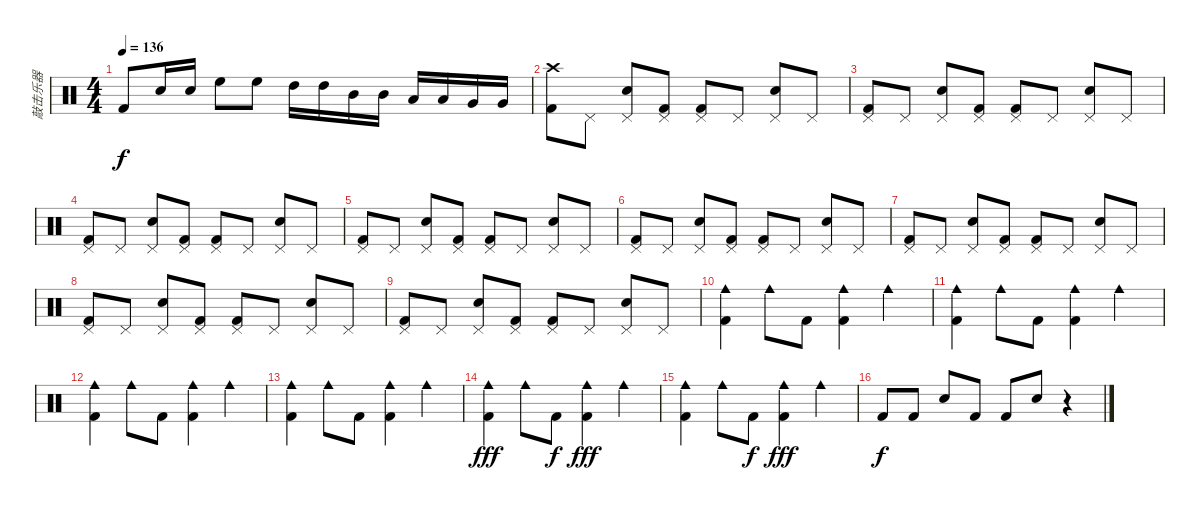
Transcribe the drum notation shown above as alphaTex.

\track ("敲击乐器" "敲击乐器") {instrument percussion}
\staff {score}
\articulation defaults
\ts (4 4)
\tempo 136
\clef neutral
\ks c "Kick (hit) 2".8{dy f} "Snare (hit) 2".16 "Snare (hit) 2".16 "High Floor Tom (hit)".8 "High Floor Tom (hit)".8 "High Tom (hit)".16 "High Tom (hit)".16 "Mid Tom (hit)".16 "Mid Tom (hit)".16 "Low Tom (hit)".16 "Low Tom (hit)".16 "Very Low Tom (hit)".16 "Very Low Tom (hit)".16
|
("Crash high (hit)" "Kick (hit) 2").8 "Pedal Hi-Hat (hit)".8 ("Pedal Hi-Hat (hit)" "Snare (hit) 2").8 ("Pedal Hi-Hat (hit)" "Kick (hit) 2").8 ("Pedal Hi-Hat (hit)" "Kick (hit) 2").8 "Pedal Hi-Hat (hit)".8 ("Pedal Hi-Hat (hit)" "Snare (hit) 2").8 "Pedal Hi-Hat (hit)".8 |
("Pedal Hi-Hat (hit)" "Kick (hit) 2").8 "Pedal Hi-Hat (hit)".8 ("Pedal Hi-Hat (hit)" "Snare (hit) 2").8 ("Pedal Hi-Hat (hit)" "Kick (hit) 2").8 ("Pedal Hi-Hat (hit)" "Kick (hit) 2").8 "Pedal Hi-Hat (hit)".8 ("Pedal Hi-Hat (hit)" "Snare (hit) 2").8 "Pedal Hi-Hat (hit)".8 |
("Pedal Hi-Hat (hit)" "Kick (hit) 2").8 "Pedal Hi-Hat (hit)".8 ("Pedal Hi-Hat (hit)" "Snare (hit) 2").8 ("Pedal Hi-Hat (hit)" "Kick (hit) 2").8 ("Pedal Hi-Hat (hit)" "Kick (hit) 2").8 "Pedal Hi-Hat (hit)".8 ("Pedal Hi-Hat (hit)" "Snare (hit) 2").8 "Pedal Hi-Hat (hit)".8 |
("Pedal Hi-Hat (hit)" "Kick (hit) 2").8 "Pedal Hi-Hat (hit)".8 ("Pedal Hi-Hat (hit)" "Snare (hit) 2").8 ("Pedal Hi-Hat (hit)" "Kick (hit) 2").8 ("Pedal Hi-Hat (hit)" "Kick (hit) 2").8 "Pedal Hi-Hat (hit)".8 ("Pedal Hi-Hat (hit)" "Snare (hit) 2").8 "Pedal Hi-Hat (hit)".8 |
("Pedal Hi-Hat (hit)" "Kick (hit) 2").8 "Pedal Hi-Hat (hit)".8 ("Pedal Hi-Hat (hit)" "Snare (hit) 2").8 ("Pedal Hi-Hat (hit)" "Kick (hit) 2").8 ("Pedal Hi-Hat (hit)" "Kick (hit) 2").8 "Pedal Hi-Hat (hit)".8 ("Pedal Hi-Hat (hit)" "Snare (hit) 2").8 "Pedal Hi-Hat (hit)".8 |
("Pedal Hi-Hat (hit)" "Kick (hit) 2").8 "Pedal Hi-Hat (hit)".8 ("Pedal Hi-Hat (hit)" "Snare (hit) 2").8 ("Pedal Hi-Hat (hit)" "Kick (hit) 2").8 ("Pedal Hi-Hat (hit)" "Kick (hit) 2").8 "Pedal Hi-Hat (hit)".8 ("Pedal Hi-Hat (hit)" "Snare (hit) 2").8 "Pedal Hi-Hat (hit)".8 |
("Pedal Hi-Hat (hit)" "Kick (hit) 2").8 "Pedal Hi-Hat (hit)".8 ("Pedal Hi-Hat (hit)" "Snare (hit) 2").8 ("Pedal Hi-Hat (hit)" "Kick (hit) 2").8 ("Pedal Hi-Hat (hit)" "Kick (hit) 2").8 "Pedal Hi-Hat (hit)".8 ("Pedal Hi-Hat (hit)" "Snare (hit) 2").8 "Pedal Hi-Hat (hit)".8 |
("Pedal Hi-Hat (hit)" "Kick (hit) 2").8 "Pedal Hi-Hat (hit)".8 ("Pedal Hi-Hat (hit)" "Snare (hit) 2").8 ("Pedal Hi-Hat (hit)" "Kick (hit) 2").8 ("Pedal Hi-Hat (hit)" "Kick (hit) 2").8 "Pedal Hi-Hat (hit)".8 ("Pedal Hi-Hat (hit)" "Snare (hit) 2").8 "Pedal Hi-Hat (hit)".8 |
("Cowbell medium (hit)" "Kick (hit) 2").4 "Cowbell medium (hit)".8 "Kick (hit) 2".8 ("Cowbell medium (hit)" "Kick (hit) 2").4 "Cowbell medium (hit)".4 |
("Cowbell medium (hit)" "Kick (hit) 2").4 "Cowbell medium (hit)".8 "Kick (hit) 2".8 ("Cowbell medium (hit)" "Kick (hit) 2").4 "Cowbell medium (hit)".4 |
("Cowbell medium (hit)" "Kick (hit) 2").4 "Cowbell medium (hit)".8 "Kick (hit) 2".8 ("Cowbell medium (hit)" "Kick (hit) 2").4 "Cowbell medium (hit)".4 |
("Cowbell medium (hit)" "Kick (hit) 2").4 "Cowbell medium (hit)".8 "Kick (hit) 2".8 ("Cowbell medium (hit)" "Kick (hit) 2").4 "Cowbell medium (hit)".4 |
("Cowbell medium (hit)" "Kick (hit) 2").4{dy fff} "Cowbell medium (hit)".8 "Kick (hit) 2".8{dy f} ("Cowbell medium (hit)" "Kick (hit) 2").4{dy fff} "Cowbell medium (hit)".4 |
("Cowbell medium (hit)" "Kick (hit) 2").4 "Cowbell medium (hit)".8 "Kick (hit) 2".8{dy f} ("Cowbell medium (hit)" "Kick (hit) 2").4{dy fff} "Cowbell medium (hit)".4 |
"Kick (hit) 2".8{dy f} "Kick (hit) 2".8 "Snare (hit) 2".8 "Kick (hit) 2".8 "Kick (hit) 2".8 "Snare (hit) 2".8 r.4
